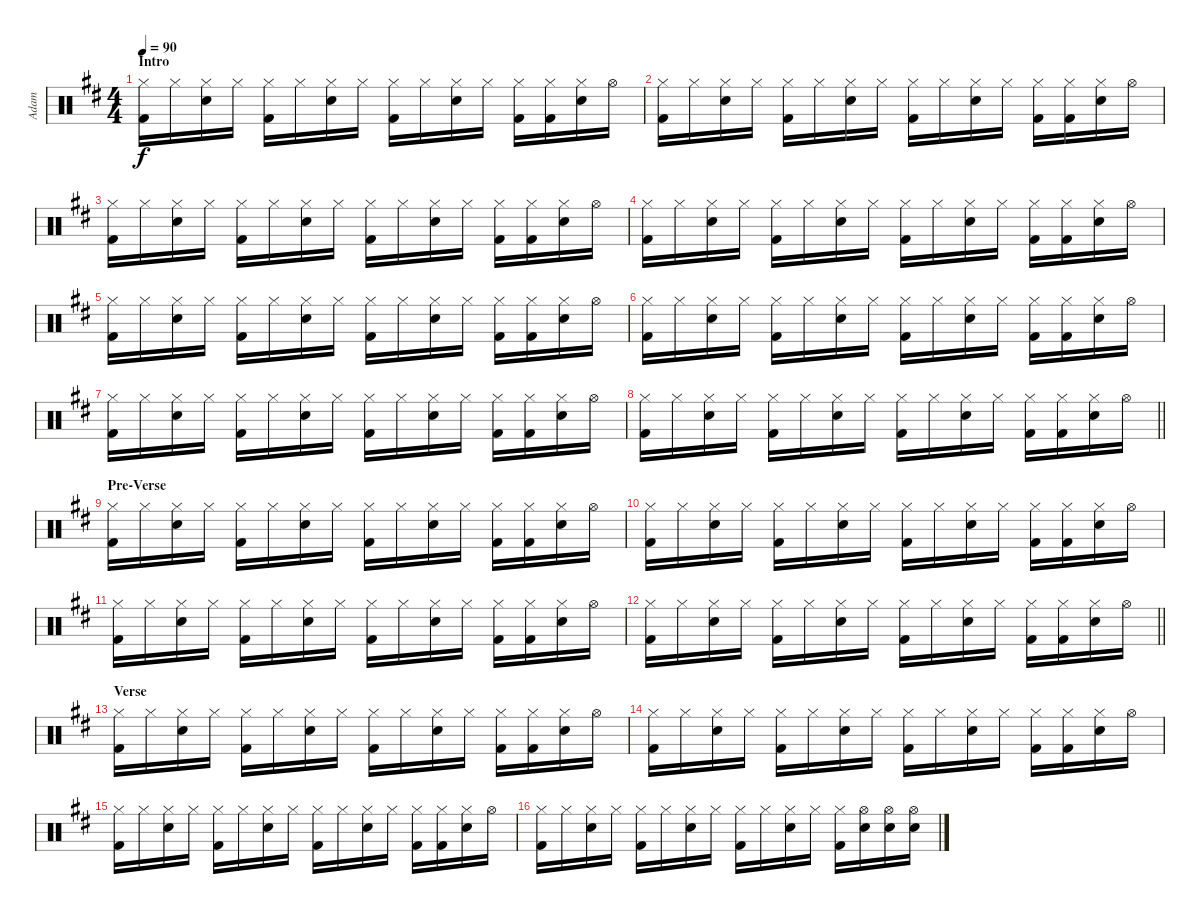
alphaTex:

\track ("Adam" "Adam") {instrument percussion}
\staff {score}
\articulation defaults
\ts (4 4)
\section ("" "Intro")
\tempo 90
\clef neutral
\ks d
("Hi-Hat (closed)" "Kick (hit) 2").16{dy f} "Hi-Hat (closed)".16 ("Hi-Hat (closed)" "Snare (hit) 2").16 "Hi-Hat (closed)".16 ("Hi-Hat (closed)" "Kick (hit) 2").16 "Hi-Hat (closed)".16 ("Hi-Hat (closed)" "Snare (hit) 2").16 "Hi-Hat (closed)".16 ("Hi-Hat (closed)" "Kick (hit) 2").16 "Hi-Hat (closed)".16 ("Hi-Hat (closed)" "Snare (hit) 2").16 "Hi-Hat (closed)".16 ("Hi-Hat (closed)" "Kick (hit) 2").16 ("Hi-Hat (closed)" "Kick (hit) 2").16 ("Hi-Hat (closed)" "Snare (hit) 2").16 "Hi-Hat (open)".16 |
("Hi-Hat (closed)" "Kick (hit) 2").16 "Hi-Hat (closed)".16 ("Hi-Hat (closed)" "Snare (hit) 2").16 "Hi-Hat (closed)".16 ("Hi-Hat (closed)" "Kick (hit) 2").16 "Hi-Hat (closed)".16 ("Hi-Hat (closed)" "Snare (hit) 2").16 "Hi-Hat (closed)".16 ("Hi-Hat (closed)" "Kick (hit) 2").16 "Hi-Hat (closed)".16 ("Hi-Hat (closed)" "Snare (hit) 2").16 "Hi-Hat (closed)".16 ("Hi-Hat (closed)" "Kick (hit) 2").16 ("Hi-Hat (closed)" "Kick (hit) 2").16 ("Hi-Hat (closed)" "Snare (hit) 2").16 "Hi-Hat (open)".16 |
("Hi-Hat (closed)" "Kick (hit) 2").16 "Hi-Hat (closed)".16 ("Hi-Hat (closed)" "Snare (hit) 2").16 "Hi-Hat (closed)".16 ("Hi-Hat (closed)" "Kick (hit) 2").16 "Hi-Hat (closed)".16 ("Hi-Hat (closed)" "Snare (hit) 2").16 "Hi-Hat (closed)".16 ("Hi-Hat (closed)" "Kick (hit) 2").16 "Hi-Hat (closed)".16 ("Hi-Hat (closed)" "Snare (hit) 2").16 "Hi-Hat (closed)".16 ("Hi-Hat (closed)" "Kick (hit) 2").16 ("Hi-Hat (closed)" "Kick (hit) 2").16 ("Hi-Hat (closed)" "Snare (hit) 2").16 "Hi-Hat (open)".16 |
("Hi-Hat (closed)" "Kick (hit) 2").16 "Hi-Hat (closed)".16 ("Hi-Hat (closed)" "Snare (hit) 2").16 "Hi-Hat (closed)".16 ("Hi-Hat (closed)" "Kick (hit) 2").16 "Hi-Hat (closed)".16 ("Hi-Hat (closed)" "Snare (hit) 2").16 "Hi-Hat (closed)".16 ("Hi-Hat (closed)" "Kick (hit) 2").16 "Hi-Hat (closed)".16 ("Hi-Hat (closed)" "Snare (hit) 2").16 "Hi-Hat (closed)".16 ("Hi-Hat (closed)" "Kick (hit) 2").16 ("Hi-Hat (closed)" "Kick (hit) 2").16 ("Hi-Hat (closed)" "Snare (hit) 2").16 "Hi-Hat (open)".16 |
("Hi-Hat (closed)" "Kick (hit) 2").16 "Hi-Hat (closed)".16 ("Hi-Hat (closed)" "Snare (hit) 2").16 "Hi-Hat (closed)".16 ("Hi-Hat (closed)" "Kick (hit) 2").16 "Hi-Hat (closed)".16 ("Hi-Hat (closed)" "Snare (hit) 2").16 "Hi-Hat (closed)".16 ("Hi-Hat (closed)" "Kick (hit) 2").16 "Hi-Hat (closed)".16 ("Hi-Hat (closed)" "Snare (hit) 2").16 "Hi-Hat (closed)".16 ("Hi-Hat (closed)" "Kick (hit) 2").16 ("Hi-Hat (closed)" "Kick (hit) 2").16 ("Hi-Hat (closed)" "Snare (hit) 2").16 "Hi-Hat (open)".16 |
("Hi-Hat (closed)" "Kick (hit) 2").16 "Hi-Hat (closed)".16 ("Hi-Hat (closed)" "Snare (hit) 2").16 "Hi-Hat (closed)".16 ("Hi-Hat (closed)" "Kick (hit) 2").16 "Hi-Hat (closed)".16 ("Hi-Hat (closed)" "Snare (hit) 2").16 "Hi-Hat (closed)".16 ("Hi-Hat (closed)" "Kick (hit) 2").16 "Hi-Hat (closed)".16 ("Hi-Hat (closed)" "Snare (hit) 2").16 "Hi-Hat (closed)".16 ("Hi-Hat (closed)" "Kick (hit) 2").16 ("Hi-Hat (closed)" "Kick (hit) 2").16 ("Hi-Hat (closed)" "Snare (hit) 2").16 "Hi-Hat (open)".16 |
("Hi-Hat (closed)" "Kick (hit) 2").16 "Hi-Hat (closed)".16 ("Hi-Hat (closed)" "Snare (hit) 2").16 "Hi-Hat (closed)".16 ("Hi-Hat (closed)" "Kick (hit) 2").16 "Hi-Hat (closed)".16 ("Hi-Hat (closed)" "Snare (hit) 2").16 "Hi-Hat (closed)".16 ("Hi-Hat (closed)" "Kick (hit) 2").16 "Hi-Hat (closed)".16 ("Hi-Hat (closed)" "Snare (hit) 2").16 "Hi-Hat (closed)".16 ("Hi-Hat (closed)" "Kick (hit) 2").16 ("Hi-Hat (closed)" "Kick (hit) 2").16 ("Hi-Hat (closed)" "Snare (hit) 2").16 "Hi-Hat (open)".16 |
\barLineRight lightlight
("Hi-Hat (closed)" "Kick (hit) 2").16 "Hi-Hat (closed)".16 ("Hi-Hat (closed)" "Snare (hit) 2").16 "Hi-Hat (closed)".16 ("Hi-Hat (closed)" "Kick (hit) 2").16 "Hi-Hat (closed)".16 ("Hi-Hat (closed)" "Snare (hit) 2").16 "Hi-Hat (closed)".16 ("Hi-Hat (closed)" "Kick (hit) 2").16 "Hi-Hat (closed)".16 ("Hi-Hat (closed)" "Snare (hit) 2").16 "Hi-Hat (closed)".16 ("Hi-Hat (closed)" "Kick (hit) 2").16 ("Hi-Hat (closed)" "Kick (hit) 2").16 ("Hi-Hat (closed)" "Snare (hit) 2").16 "Hi-Hat (open)".16 |
\section ("" "Pre-Verse")
("Hi-Hat (closed)" "Kick (hit) 2").16 "Hi-Hat (closed)".16 ("Hi-Hat (closed)" "Snare (hit) 2").16 "Hi-Hat (closed)".16 ("Hi-Hat (closed)" "Kick (hit) 2").16 "Hi-Hat (closed)".16 ("Hi-Hat (closed)" "Snare (hit) 2").16 "Hi-Hat (closed)".16 ("Hi-Hat (closed)" "Kick (hit) 2").16 "Hi-Hat (closed)".16 ("Hi-Hat (closed)" "Snare (hit) 2").16 "Hi-Hat (closed)".16 ("Hi-Hat (closed)" "Kick (hit) 2").16 ("Hi-Hat (closed)" "Kick (hit) 2").16 ("Hi-Hat (closed)" "Snare (hit) 2").16 "Hi-Hat (open)".16 |
("Hi-Hat (closed)" "Kick (hit) 2").16 "Hi-Hat (closed)".16 ("Hi-Hat (closed)" "Snare (hit) 2").16 "Hi-Hat (closed)".16 ("Hi-Hat (closed)" "Kick (hit) 2").16 "Hi-Hat (closed)".16 ("Hi-Hat (closed)" "Snare (hit) 2").16 "Hi-Hat (closed)".16 ("Hi-Hat (closed)" "Kick (hit) 2").16 "Hi-Hat (closed)".16 ("Hi-Hat (closed)" "Snare (hit) 2").16 "Hi-Hat (closed)".16 ("Hi-Hat (closed)" "Kick (hit) 2").16 ("Hi-Hat (closed)" "Kick (hit) 2").16 ("Hi-Hat (closed)" "Snare (hit) 2").16 "Hi-Hat (open)".16 |
("Hi-Hat (closed)" "Kick (hit) 2").16 "Hi-Hat (closed)".16 ("Hi-Hat (closed)" "Snare (hit) 2").16 "Hi-Hat (closed)".16 ("Hi-Hat (closed)" "Kick (hit) 2").16 "Hi-Hat (closed)".16 ("Hi-Hat (closed)" "Snare (hit) 2").16 "Hi-Hat (closed)".16 ("Hi-Hat (closed)" "Kick (hit) 2").16 "Hi-Hat (closed)".16 ("Hi-Hat (closed)" "Snare (hit) 2").16 "Hi-Hat (closed)".16 ("Hi-Hat (closed)" "Kick (hit) 2").16 ("Hi-Hat (closed)" "Kick (hit) 2").16 ("Hi-Hat (closed)" "Snare (hit) 2").16 "Hi-Hat (open)".16 |
\barLineRight lightlight
("Hi-Hat (closed)" "Kick (hit) 2").16 "Hi-Hat (closed)".16 ("Hi-Hat (closed)" "Snare (hit) 2").16 "Hi-Hat (closed)".16 ("Hi-Hat (closed)" "Kick (hit) 2").16 "Hi-Hat (closed)".16 ("Hi-Hat (closed)" "Snare (hit) 2").16 "Hi-Hat (closed)".16 ("Hi-Hat (closed)" "Kick (hit) 2").16 "Hi-Hat (closed)".16 ("Hi-Hat (closed)" "Snare (hit) 2").16 "Hi-Hat (closed)".16 ("Hi-Hat (closed)" "Kick (hit) 2").16 ("Hi-Hat (closed)" "Kick (hit) 2").16 ("Hi-Hat (closed)" "Snare (hit) 2").16 "Hi-Hat (open)".16 |
\section ("" "Verse")
("Hi-Hat (closed)" "Kick (hit) 2").16 "Hi-Hat (closed)".16 ("Hi-Hat (closed)" "Snare (hit) 2").16 "Hi-Hat (closed)".16 ("Hi-Hat (closed)" "Kick (hit) 2").16 "Hi-Hat (closed)".16 ("Hi-Hat (closed)" "Snare (hit) 2").16 "Hi-Hat (closed)".16 ("Hi-Hat (closed)" "Kick (hit) 2").16 "Hi-Hat (closed)".16 ("Hi-Hat (closed)" "Snare (hit) 2").16 "Hi-Hat (closed)".16 ("Hi-Hat (closed)" "Kick (hit) 2").16 ("Hi-Hat (closed)" "Kick (hit) 2").16 ("Hi-Hat (closed)" "Snare (hit) 2").16 "Hi-Hat (open)".16 |
("Hi-Hat (closed)" "Kick (hit) 2").16 "Hi-Hat (closed)".16 ("Hi-Hat (closed)" "Snare (hit) 2").16 "Hi-Hat (closed)".16 ("Hi-Hat (closed)" "Kick (hit) 2").16 "Hi-Hat (closed)".16 ("Hi-Hat (closed)" "Snare (hit) 2").16 "Hi-Hat (closed)".16 ("Hi-Hat (closed)" "Kick (hit) 2").16 "Hi-Hat (closed)".16 ("Hi-Hat (closed)" "Snare (hit) 2").16 "Hi-Hat (closed)".16 ("Hi-Hat (closed)" "Kick (hit) 2").16 ("Hi-Hat (closed)" "Kick (hit) 2").16 ("Hi-Hat (closed)" "Snare (hit) 2").16 "Hi-Hat (open)".16 |
("Hi-Hat (closed)" "Kick (hit) 2").16 "Hi-Hat (closed)".16 ("Hi-Hat (closed)" "Snare (hit) 2").16 "Hi-Hat (closed)".16 ("Hi-Hat (closed)" "Kick (hit) 2").16 "Hi-Hat (closed)".16 ("Hi-Hat (closed)" "Snare (hit) 2").16 "Hi-Hat (closed)".16 ("Hi-Hat (closed)" "Kick (hit) 2").16 "Hi-Hat (closed)".16 ("Hi-Hat (closed)" "Snare (hit) 2").16 "Hi-Hat (closed)".16 ("Hi-Hat (closed)" "Kick (hit) 2").16 ("Hi-Hat (closed)" "Kick (hit) 2").16 ("Hi-Hat (closed)" "Snare (hit) 2").16 "Hi-Hat (open)".16 |
("Hi-Hat (closed)" "Kick (hit) 2").16 "Hi-Hat (closed)".16 ("Hi-Hat (closed)" "Snare (hit) 2").16 "Hi-Hat (closed)".16 ("Hi-Hat (closed)" "Kick (hit) 2").16 "Hi-Hat (closed)".16 ("Hi-Hat (closed)" "Snare (hit) 2").16 "Hi-Hat (closed)".16 ("Hi-Hat (closed)" "Kick (hit) 2").16 "Hi-Hat (closed)".16 ("Hi-Hat (closed)" "Snare (hit) 2").16 "Hi-Hat (closed)".16 ("Hi-Hat (closed)" "Kick (hit) 2").16 ("Hi-Hat (open)" "Snare (hit) 2").16 ("Hi-Hat (open)" "Snare (hit) 2").16 ("Hi-Hat (open)" "Snare (hit) 2").16
